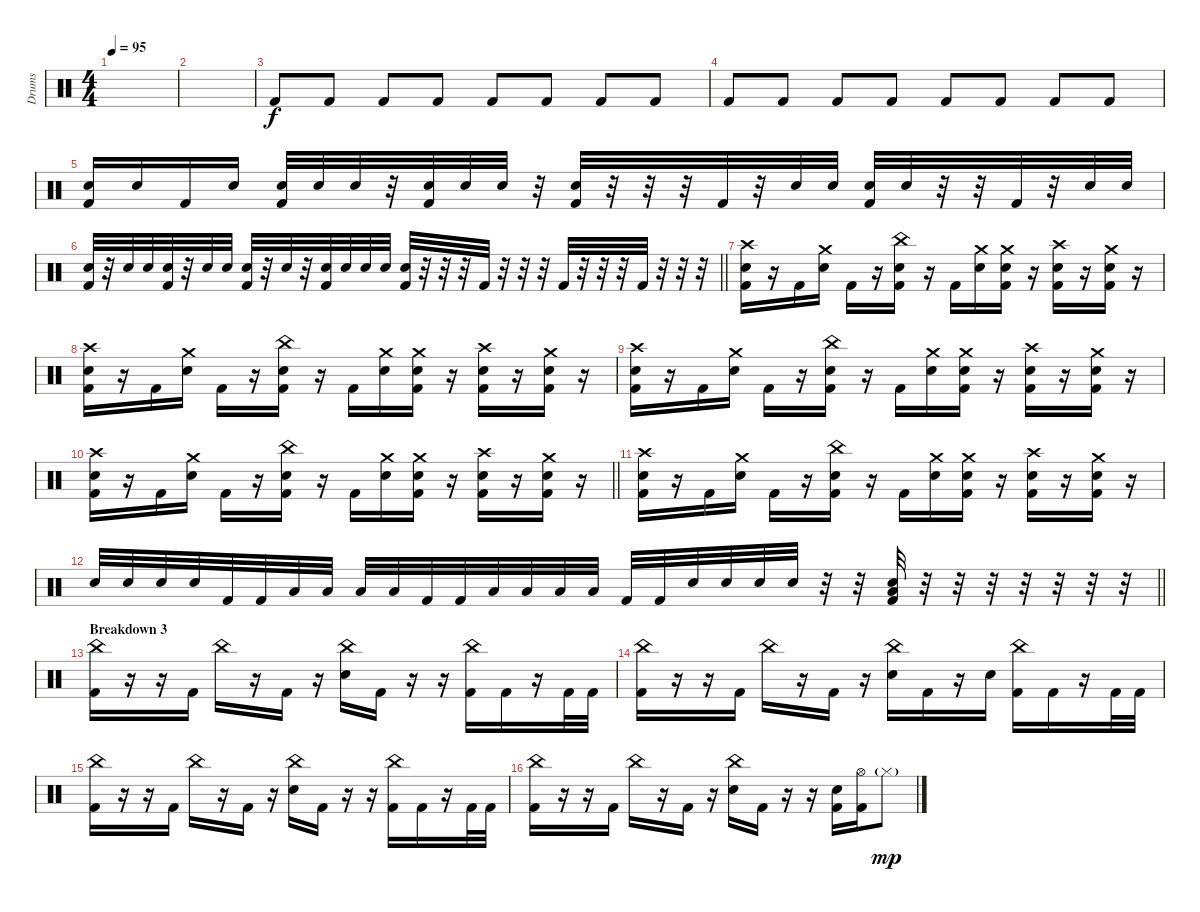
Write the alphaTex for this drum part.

\track ("Drums" "Drums") {instrument percussion}
\staff {score}
\articulation defaults
\ts (4 4)
\tempo 95
\clef neutral
\ks c
|
|
"Kick (hit) 2".8 "Kick (hit) 2".8 "Kick (hit) 2".8 "Kick (hit) 2".8 "Kick (hit) 2".8 "Kick (hit) 2".8 "Kick (hit) 2".8 "Kick (hit) 2".8 |
"Kick (hit) 2".8 "Kick (hit) 2".8 "Kick (hit) 2".8 "Kick (hit) 2".8 "Kick (hit) 2".8 "Kick (hit) 2".8 "Kick (hit) 2".8 "Kick (hit) 2".8 |
("Electric Snare (hit)" "Kick (hit) 2").16 "Electric Snare (hit)".16 "Kick (hit) 2".16 "Electric Snare (hit)".16 ("Electric Snare (hit)" "Kick (hit) 2").32 "Electric Snare (hit)".32 "Electric Snare (hit)".32 r.32 ("Electric Snare (hit)" "Kick (hit) 2").32 "Electric Snare (hit)".32 "Electric Snare (hit)".32 r.32 ("Electric Snare (hit)" "Kick (hit) 2").32 r.32 r.32 r.32 "Kick (hit) 2".32 r.32 "Electric Snare (hit)".32 "Electric Snare (hit)".32 ("Electric Snare (hit)" "Kick (hit) 2").32 "Electric Snare (hit)".32 r.32 r.32 "Kick (hit) 2".32 r.32 "Electric Snare (hit)".32 "Electric Snare (hit)".32 |
\barLineRight lightlight
("Electric Snare (hit)" "Kick (hit) 2").32 r.32 "Electric Snare (hit)".32 "Electric Snare (hit)".32 ("Electric Snare (hit)" "Kick (hit) 2").32 r.32 "Electric Snare (hit)".32 "Electric Snare (hit)".32 ("Electric Snare (hit)" "Kick (hit) 2").32 r.32 "Electric Snare (hit)".32 r.32 ("Electric Snare (hit)" "Kick (hit) 2").32 "Electric Snare (hit)".32 "Electric Snare (hit)".32 "Electric Snare (hit)".32 ("Electric Snare (hit)" "Kick (hit) 2").32 r.32 r.32 r.32 "Kick (hit) 2".32 r.32 r.32 r.32 "Kick (hit) 2".32 r.32 r.32 r.32 "Kick (hit) 2".32 r.32 r.32 r.32 |
\section ("" "")
("Crash high (hit)" "Electric Snare (hit)" "Kick (hit) 2").16 r.16 "Kick (hit) 2".16 ("Crash medium (hit)" "Electric Snare (hit)").16 "Kick (hit) 2".16 r.16 ("China (hit)" "Electric Snare (hit)" "Kick (hit) 2").16 r.16 "Kick (hit) 2".16 ("Crash medium (hit)" "Electric Snare (hit)").16 ("Crash medium (hit)" "Electric Snare (hit)" "Kick (hit) 2").16 r.16 ("Crash high (hit)" "Electric Snare (hit)" "Kick (hit) 2").16 r.16 ("Crash medium (hit)" "Electric Snare (hit)" "Kick (hit) 2").16 r.16 |
("Crash high (hit)" "Electric Snare (hit)" "Kick (hit) 2").16 r.16 "Kick (hit) 2".16 ("Crash medium (hit)" "Electric Snare (hit)").16 "Kick (hit) 2".16 r.16 ("China (hit)" "Electric Snare (hit)" "Kick (hit) 2").16 r.16 "Kick (hit) 2".16 ("Crash medium (hit)" "Electric Snare (hit)").16 ("Crash medium (hit)" "Electric Snare (hit)" "Kick (hit) 2").16 r.16 ("Crash high (hit)" "Electric Snare (hit)" "Kick (hit) 2").16 r.16 ("Crash medium (hit)" "Electric Snare (hit)" "Kick (hit) 2").16 r.16 |
("Crash high (hit)" "Electric Snare (hit)" "Kick (hit) 2").16 r.16 "Kick (hit) 2".16 ("Crash medium (hit)" "Electric Snare (hit)").16 "Kick (hit) 2".16 r.16 ("China (hit)" "Electric Snare (hit)" "Kick (hit) 2").16 r.16 "Kick (hit) 2".16 ("Crash medium (hit)" "Electric Snare (hit)").16 ("Crash medium (hit)" "Electric Snare (hit)" "Kick (hit) 2").16 r.16 ("Crash high (hit)" "Electric Snare (hit)" "Kick (hit) 2").16 r.16 ("Crash medium (hit)" "Electric Snare (hit)" "Kick (hit) 2").16 r.16 |
\barLineRight lightlight
("Crash high (hit)" "Electric Snare (hit)" "Kick (hit) 2").16 r.16 "Kick (hit) 2".16 ("Crash medium (hit)" "Electric Snare (hit)").16 "Kick (hit) 2".16 r.16 ("China (hit)" "Electric Snare (hit)" "Kick (hit) 2").16 r.16 "Kick (hit) 2".16 ("Crash medium (hit)" "Electric Snare (hit)").16 ("Crash medium (hit)" "Electric Snare (hit)" "Kick (hit) 2").16 r.16 ("Crash high (hit)" "Electric Snare (hit)" "Kick (hit) 2").16 r.16 ("Crash medium (hit)" "Electric Snare (hit)" "Kick (hit) 2").16 r.16 |
\section ("" "")
("Crash high (hit)" "Electric Snare (hit)" "Kick (hit) 2").16 r.16 "Kick (hit) 2".16 ("Crash medium (hit)" "Electric Snare (hit)").16 "Kick (hit) 2".16 r.16 ("China (hit)" "Electric Snare (hit)" "Kick (hit) 2").16 r.16 "Kick (hit) 2".16 ("Crash medium (hit)" "Electric Snare (hit)").16 ("Crash medium (hit)" "Electric Snare (hit)" "Kick (hit) 2").16 r.16 ("Crash high (hit)" "Electric Snare (hit)" "Kick (hit) 2").16 r.16 ("Crash medium (hit)" "Electric Snare (hit)" "Kick (hit) 2").16 r.16 |
\barLineRight lightlight "Electric Snare (hit)".32 "Electric Snare (hit)".32 "Electric Snare (hit)".32 "Electric Snare (hit)".32 "Kick (hit) 2".32 "Kick (hit) 2".32 "Low Tom (hit)".32 "Low Tom (hit)".32 "Low Tom (hit)".32 "Low Tom (hit)".32 "Kick (hit) 2".32 "Kick (hit) 2".32 "Low Floor Tom (hit)".32 "Low Floor Tom (hit)".32 "Low Floor Tom (hit)".32 "Low Floor Tom (hit)".32 "Kick (hit) 2".32 "Kick (hit) 2".32 "Electric Snare (hit)".32 "Electric Snare (hit)".32 "Electric Snare (hit)".32 "Electric Snare (hit)".32
r.32 r.32 ("Low Floor Tom (hit)" "Electric Snare (hit)" "Kick (hit) 2").32 r.32 r.32 r.32 r.32 r.32 r.32 r.32 |
\section ("" "Breakdown 3")
("China (hit)" "Kick (hit) 2").16 r.16 r.16 "Kick (hit) 2".16 "China (hit)".16 r.16 "Kick (hit) 2".16 r.16 ("China (hit)" "Electric Snare (hit)").16 "Kick (hit) 2".16 r.16 r.16 ("China (hit)" "Kick (hit) 2").16 "Kick (hit) 2".16 r.16 "Kick (hit) 2".32 "Kick (hit) 2".32 |
("China (hit)" "Kick (hit) 2").16 r.16 r.16 "Kick (hit) 2".16 "China (hit)".16 r.16 "Kick (hit) 2".16 r.16 ("China (hit)" "Electric Snare (hit)").16 "Kick (hit) 2".16 r.16 "Electric Snare (hit)".16 ("China (hit)" "Kick (hit) 2").16 "Kick (hit) 2".16 r.16 "Kick (hit) 2".32 "Kick (hit) 2".32 |
("China (hit)" "Kick (hit) 2").16 r.16 r.16 "Kick (hit) 2".16 "China (hit)".16 r.16 "Kick (hit) 2".16 r.16 ("China (hit)" "Electric Snare (hit)").16 "Kick (hit) 2".16 r.16 r.16 ("China (hit)" "Kick (hit) 2").16 "Kick (hit) 2".16 r.16 "Kick (hit) 2".32 "Kick (hit) 2".32 |
("China (hit)" "Kick (hit) 2").16 r.16 r.16 "Kick (hit) 2".16 "China (hit)".16 r.16 "Kick (hit) 2".16 r.16 ("China (hit)" "Electric Snare (hit)").16 "Kick (hit) 2".16 r.16 r.16 ("Electric Snare (hit)" "Kick (hit) 2").16 ("Hi-Hat (open)" "Kick (hit) 2").16 "Hi-Hat (closed)"{g}.8{dy mp}
